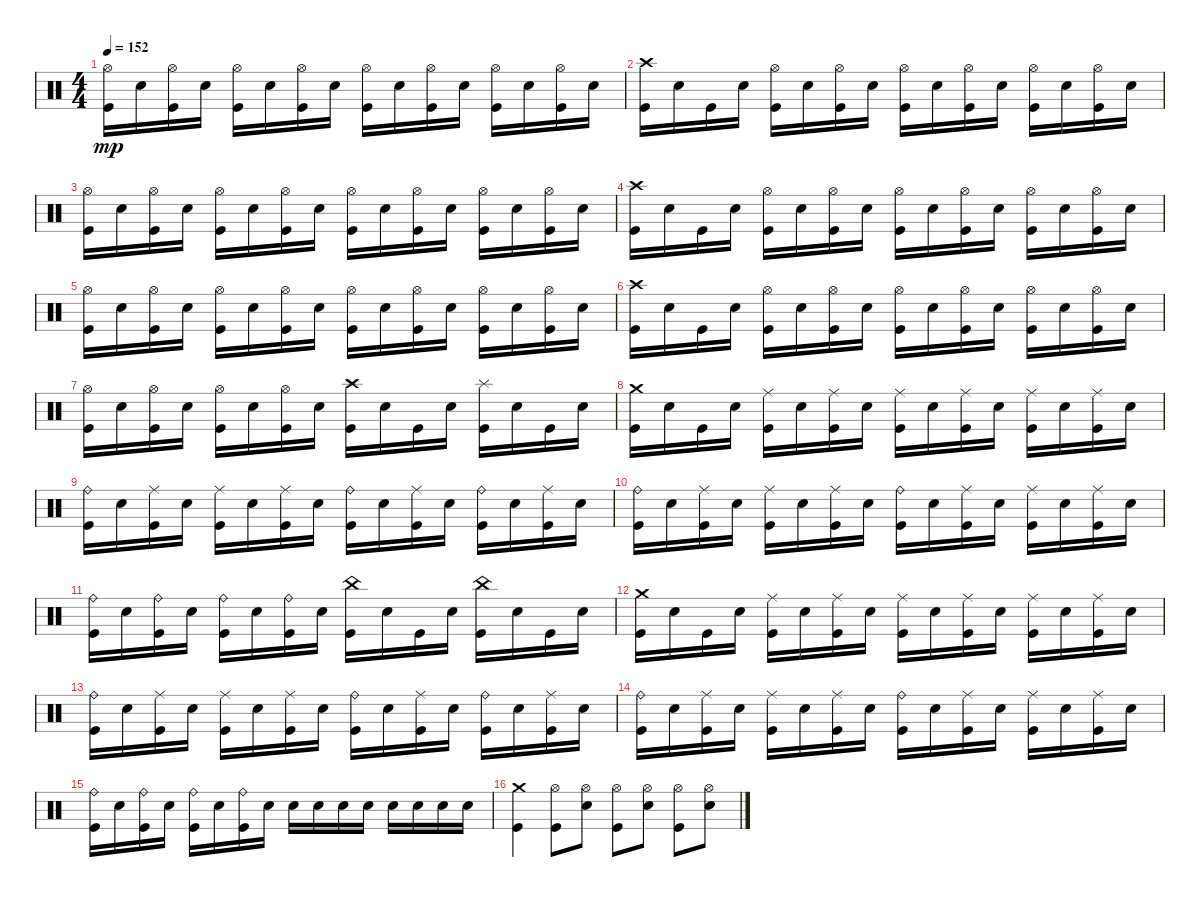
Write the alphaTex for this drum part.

\track "" {instrument percussion}
\staff {score}
\articulation defaults
\ts (4 4)
\tempo 152
\clef neutral
\ks c
("Kick (hit)" "Hi-Hat (open)").16{dy mp} "Snare (hit) 2".16 ("Kick (hit)" "Hi-Hat (open)").16 "Snare (hit) 2".16 ("Kick (hit)" "Hi-Hat (open)").16 "Snare (hit) 2".16 ("Kick (hit)" "Hi-Hat (open)").16 "Snare (hit) 2".16 ("Kick (hit)" "Hi-Hat (open)").16 "Snare (hit) 2".16 ("Kick (hit)" "Hi-Hat (open)").16 "Snare (hit) 2".16 ("Kick (hit)" "Hi-Hat (open)").16 "Snare (hit) 2".16 ("Kick (hit)" "Hi-Hat (open)").16 "Snare (hit) 2".16 |
("Kick (hit)" "Crash high (hit)").16 "Snare (hit) 2".16 "Kick (hit)".16 "Snare (hit) 2".16 ("Kick (hit)" "Hi-Hat (open)").16 "Snare (hit) 2".16 ("Kick (hit)" "Hi-Hat (open)").16 "Snare (hit) 2".16 ("Kick (hit)" "Hi-Hat (open)").16 "Snare (hit) 2".16 ("Kick (hit)" "Hi-Hat (open)").16 "Snare (hit) 2".16 ("Kick (hit)" "Hi-Hat (open)").16 "Snare (hit) 2".16 ("Kick (hit)" "Hi-Hat (open)").16 "Snare (hit) 2".16 |
("Kick (hit)" "Hi-Hat (open)").16 "Snare (hit) 2".16 ("Kick (hit)" "Hi-Hat (open)").16 "Snare (hit) 2".16 ("Kick (hit)" "Hi-Hat (open)").16 "Snare (hit) 2".16 ("Kick (hit)" "Hi-Hat (open)").16 "Snare (hit) 2".16 ("Kick (hit)" "Hi-Hat (open)").16 "Snare (hit) 2".16 ("Kick (hit)" "Hi-Hat (open)").16 "Snare (hit) 2".16 ("Kick (hit)" "Hi-Hat (open)").16 "Snare (hit) 2".16 ("Kick (hit)" "Hi-Hat (open)").16 "Snare (hit) 2".16 |
("Kick (hit)" "Crash high (hit)").16 "Snare (hit) 2".16 "Kick (hit)".16 "Snare (hit) 2".16 ("Kick (hit)" "Hi-Hat (open)").16 "Snare (hit) 2".16 ("Kick (hit)" "Hi-Hat (open)").16 "Snare (hit) 2".16 ("Kick (hit)" "Hi-Hat (open)").16 "Snare (hit) 2".16 ("Kick (hit)" "Hi-Hat (open)").16 "Snare (hit) 2".16 ("Kick (hit)" "Hi-Hat (open)").16 "Snare (hit) 2".16 ("Kick (hit)" "Hi-Hat (open)").16 "Snare (hit) 2".16 |
("Kick (hit)" "Hi-Hat (open)").16 "Snare (hit) 2".16 ("Kick (hit)" "Hi-Hat (open)").16 "Snare (hit) 2".16 ("Kick (hit)" "Hi-Hat (open)").16 "Snare (hit) 2".16 ("Kick (hit)" "Hi-Hat (open)").16 "Snare (hit) 2".16 ("Kick (hit)" "Hi-Hat (open)").16 "Snare (hit) 2".16 ("Kick (hit)" "Hi-Hat (open)").16 "Snare (hit) 2".16 ("Kick (hit)" "Hi-Hat (open)").16 "Snare (hit) 2".16 ("Kick (hit)" "Hi-Hat (open)").16 "Snare (hit) 2".16 |
("Kick (hit)" "Crash high (hit)").16 "Snare (hit) 2".16 "Kick (hit)".16 "Snare (hit) 2".16 ("Kick (hit)" "Hi-Hat (open)").16 "Snare (hit) 2".16 ("Kick (hit)" "Hi-Hat (open)").16 "Snare (hit) 2".16 ("Kick (hit)" "Hi-Hat (open)").16 "Snare (hit) 2".16 ("Kick (hit)" "Hi-Hat (open)").16 "Snare (hit) 2".16 ("Kick (hit)" "Hi-Hat (open)").16 "Snare (hit) 2".16 ("Kick (hit)" "Hi-Hat (open)").16 "Snare (hit) 2".16 |
("Kick (hit)" "Hi-Hat (open)").16 "Snare (hit) 2".16 ("Kick (hit)" "Hi-Hat (open)").16 "Snare (hit) 2".16 ("Kick (hit)" "Hi-Hat (open)").16 "Snare (hit) 2".16 ("Kick (hit)" "Hi-Hat (open)").16 "Snare (hit) 2".16 ("Crash high (hit)" "Kick (hit)").16 "Snare (hit) 2".16 "Kick (hit)".16 "Snare (hit) 2".16 ("Splash (hit)" "Kick (hit)").16 "Snare (hit) 2".16 "Kick (hit)".16 "Snare (hit) 2".16 |
("Kick (hit)" "Crash medium (hit)").16 "Snare (hit) 2".16 "Kick (hit)".16 "Snare (hit) 2".16 ("Kick (hit)" "Ride (middle)").16 "Snare (hit) 2".16 ("Kick (hit)" "Ride (middle)").16 "Snare (hit) 2".16 ("Kick (hit)" "Ride (middle)").16 "Snare (hit) 2".16 ("Kick (hit)" "Ride (middle)").16 "Snare (hit) 2".16 ("Kick (hit)" "Ride (middle)").16 "Snare (hit) 2".16 ("Kick (hit)" "Ride (middle)").16 "Snare (hit) 2".16 |
("Kick (hit)" "Ride (bell)").16 "Snare (hit) 2".16 ("Kick (hit)" "Ride (middle)").16 "Snare (hit) 2".16 ("Kick (hit)" "Ride (middle)").16 "Snare (hit) 2".16 ("Kick (hit)" "Ride (middle)").16 "Snare (hit) 2".16 ("Kick (hit)" "Ride (bell)").16 "Snare (hit) 2".16 ("Kick (hit)" "Ride (middle)").16 "Snare (hit) 2".16 ("Kick (hit)" "Ride (bell)").16 "Snare (hit) 2".16 ("Kick (hit)" "Ride (middle)").16 "Snare (hit) 2".16 |
("Kick (hit)" "Ride (bell)").16 "Snare (hit) 2".16 ("Kick (hit)" "Ride (middle)").16 "Snare (hit) 2".16 ("Kick (hit)" "Ride (middle)").16 "Snare (hit) 2".16 ("Kick (hit)" "Ride (middle)").16 "Snare (hit) 2".16 ("Kick (hit)" "Ride (bell)").16 "Snare (hit) 2".16 ("Kick (hit)" "Ride (middle)").16 "Snare (hit) 2".16 ("Kick (hit)" "Ride (middle)").16 "Snare (hit) 2".16 ("Kick (hit)" "Ride (middle)").16 "Snare (hit) 2".16 |
("Kick (hit)" "Ride (bell)").16 "Snare (hit) 2".16 ("Kick (hit)" "Ride (bell)").16 "Snare (hit) 2".16 ("Kick (hit)" "Ride (bell)").16 "Snare (hit) 2".16 ("Kick (hit)" "Ride (bell)").16 "Snare (hit) 2".16 ("Kick (hit)" "China (hit)").16 "Snare (hit) 2".16 "Kick (hit)".16 "Snare (hit) 2".16 ("Kick (hit)" "China (hit)").16 "Snare (hit) 2".16 "Kick (hit)".16 "Snare (hit) 2".16 |
("Kick (hit)" "Crash medium (hit)").16 "Snare (hit) 2".16 "Kick (hit)".16 "Snare (hit) 2".16 ("Kick (hit)" "Ride (middle)").16 "Snare (hit) 2".16 ("Kick (hit)" "Ride (middle)").16 "Snare (hit) 2".16 ("Kick (hit)" "Ride (middle)").16 "Snare (hit) 2".16 ("Kick (hit)" "Ride (middle)").16 "Snare (hit) 2".16 ("Kick (hit)" "Ride (middle)").16 "Snare (hit) 2".16 ("Kick (hit)" "Ride (middle)").16 "Snare (hit) 2".16 |
("Kick (hit)" "Ride (bell)").16 "Snare (hit) 2".16 ("Kick (hit)" "Ride (middle)").16 "Snare (hit) 2".16 ("Kick (hit)" "Ride (middle)").16 "Snare (hit) 2".16 ("Kick (hit)" "Ride (middle)").16 "Snare (hit) 2".16 ("Kick (hit)" "Ride (bell)").16 "Snare (hit) 2".16 ("Kick (hit)" "Ride (middle)").16 "Snare (hit) 2".16 ("Kick (hit)" "Ride (bell)").16 "Snare (hit) 2".16 ("Kick (hit)" "Ride (middle)").16 "Snare (hit) 2".16 |
("Kick (hit)" "Ride (bell)").16 "Snare (hit) 2".16 ("Kick (hit)" "Ride (middle)").16 "Snare (hit) 2".16 ("Kick (hit)" "Ride (middle)").16 "Snare (hit) 2".16 ("Kick (hit)" "Ride (middle)").16 "Snare (hit) 2".16 ("Kick (hit)" "Ride (bell)").16 "Snare (hit) 2".16 ("Kick (hit)" "Ride (middle)").16 "Snare (hit) 2".16 ("Kick (hit)" "Ride (middle)").16 "Snare (hit) 2".16 ("Kick (hit)" "Ride (middle)").16 "Snare (hit) 2".16 |
("Kick (hit)" "Ride (bell)").16 "Snare (hit) 2".16 ("Kick (hit)" "Ride (bell)").16 "Snare (hit) 2".16 ("Kick (hit)" "Ride (bell)").16 "Snare (hit) 2".16 ("Kick (hit)" "Ride (bell)").16 "Snare (hit) 2".16 "Snare (hit) 2".16 "Snare (hit) 2".16 "Snare (hit) 2".16 "Snare (hit) 2".16 "Snare (hit) 2".16 "Snare (hit) 2".16 "Snare (hit) 2".16 "Snare (hit) 2".16 |
("Kick (hit)" "Crash medium (hit)").4 ("Kick (hit)" "Hi-Hat (open)").8 ("Snare (hit) 2" "Hi-Hat (open)").8 ("Kick (hit)" "Hi-Hat (open)").8 ("Snare (hit) 2" "Hi-Hat (open)").8 ("Kick (hit)" "Hi-Hat (open)").8 ("Snare (hit) 2" "Hi-Hat (open)").8
